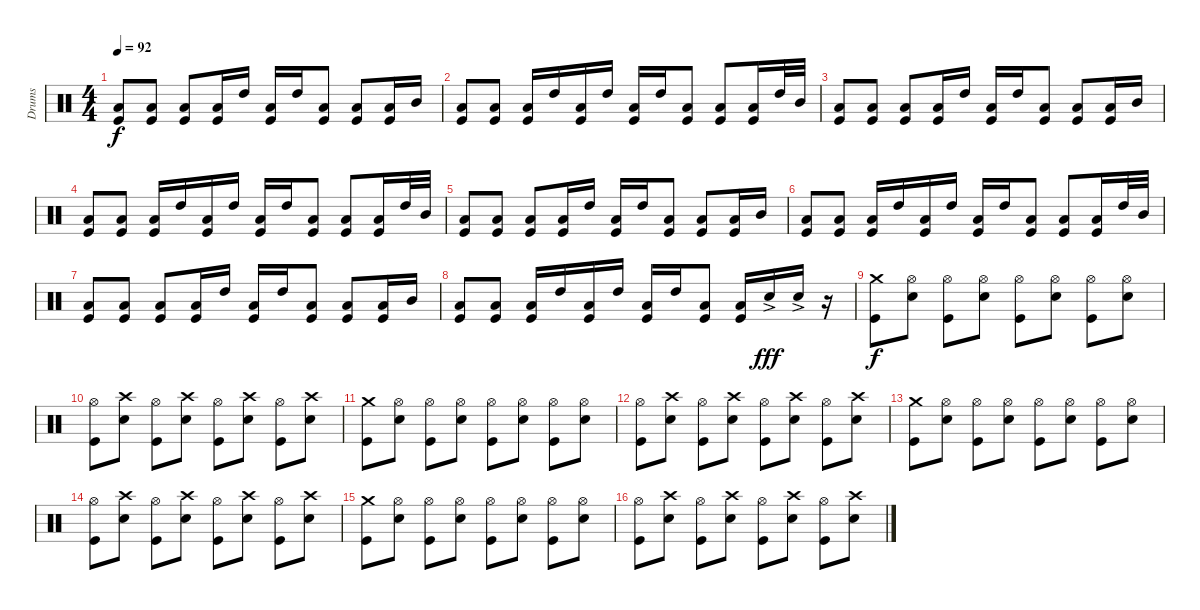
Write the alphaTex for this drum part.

\track ("Drums" "Drums") {instrument percussion}
\staff {score}
\articulation defaults
\ts (4 4)
\tempo 92
\clef neutral
\ks c
("Low Tom (hit)" "Kick (hit)").8{dy f} ("Low Tom (hit)" "Kick (hit)").8 ("Low Tom (hit)" "Kick (hit)").8 ("Low Tom (hit)" "Kick (hit)").16 "High Tom (hit)".16 ("Low Tom (hit)" "Kick (hit)").16 "High Tom (hit)".16 ("Low Tom (hit)" "Kick (hit)").8 ("Low Tom (hit)" "Kick (hit)").8 ("Low Tom (hit)" "Kick (hit)").16 "Mid Tom (hit)".16 |
("Low Tom (hit)" "Kick (hit)").8 ("Low Tom (hit)" "Kick (hit)").8 ("Low Tom (hit)" "Kick (hit)").16 "High Tom (hit)".16 ("Low Tom (hit)" "Kick (hit)").16 "High Tom (hit)".16 ("Low Tom (hit)" "Kick (hit)").16 "High Tom (hit)".16 ("Low Tom (hit)" "Kick (hit)").8 ("Low Tom (hit)" "Kick (hit)").8 ("Low Tom (hit)" "Kick (hit)").16 "High Tom (hit)".32 "Mid Tom (hit)".32 |
("Low Tom (hit)" "Kick (hit)").8 ("Low Tom (hit)" "Kick (hit)").8 ("Low Tom (hit)" "Kick (hit)").8 ("Low Tom (hit)" "Kick (hit)").16 "High Tom (hit)".16 ("Low Tom (hit)" "Kick (hit)").16 "High Tom (hit)".16 ("Low Tom (hit)" "Kick (hit)").8 ("Low Tom (hit)" "Kick (hit)").8 ("Low Tom (hit)" "Kick (hit)").16 "Mid Tom (hit)".16 |
("Low Tom (hit)" "Kick (hit)").8 ("Low Tom (hit)" "Kick (hit)").8 ("Low Tom (hit)" "Kick (hit)").16 "High Tom (hit)".16 ("Low Tom (hit)" "Kick (hit)").16 "High Tom (hit)".16 ("Low Tom (hit)" "Kick (hit)").16 "High Tom (hit)".16 ("Low Tom (hit)" "Kick (hit)").8 ("Low Tom (hit)" "Kick (hit)").8 ("Low Tom (hit)" "Kick (hit)").16 "High Tom (hit)".32 "Mid Tom (hit)".32 |
("Low Tom (hit)" "Kick (hit)").8 ("Low Tom (hit)" "Kick (hit)").8 ("Low Tom (hit)" "Kick (hit)").8 ("Low Tom (hit)" "Kick (hit)").16 "High Tom (hit)".16 ("Low Tom (hit)" "Kick (hit)").16 "High Tom (hit)".16 ("Low Tom (hit)" "Kick (hit)").8 ("Low Tom (hit)" "Kick (hit)").8 ("Low Tom (hit)" "Kick (hit)").16 "Mid Tom (hit)".16 |
("Low Tom (hit)" "Kick (hit)").8 ("Low Tom (hit)" "Kick (hit)").8 ("Low Tom (hit)" "Kick (hit)").16 "High Tom (hit)".16 ("Low Tom (hit)" "Kick (hit)").16 "High Tom (hit)".16 ("Low Tom (hit)" "Kick (hit)").16 "High Tom (hit)".16 ("Low Tom (hit)" "Kick (hit)").8 ("Low Tom (hit)" "Kick (hit)").8 ("Low Tom (hit)" "Kick (hit)").16 "High Tom (hit)".32 "Mid Tom (hit)".32 |
("Low Tom (hit)" "Kick (hit)").8 ("Low Tom (hit)" "Kick (hit)").8 ("Low Tom (hit)" "Kick (hit)").8 ("Low Tom (hit)" "Kick (hit)").16 "High Tom (hit)".16 ("Low Tom (hit)" "Kick (hit)").16 "High Tom (hit)".16 ("Low Tom (hit)" "Kick (hit)").8 ("Low Tom (hit)" "Kick (hit)").8 ("Low Tom (hit)" "Kick (hit)").16 "Mid Tom (hit)".16 |
("Low Tom (hit)" "Kick (hit)").8 ("Low Tom (hit)" "Kick (hit)").8 ("Low Tom (hit)" "Kick (hit)").16 "High Tom (hit)".16 ("Low Tom (hit)" "Kick (hit)").16 "High Tom (hit)".16 ("Low Tom (hit)" "Kick (hit)").16 "High Tom (hit)".16 ("Low Tom (hit)" "Kick (hit)").8 ("Low Tom (hit)" "Kick (hit)").16 "Electric Snare (hit)"{ac}.16{dy fff} "Electric Snare (hit)"{ac}.16 r.16 |
("Crash medium (hit)" "Kick (hit)").8{dy f} ("Hi-Hat (open)" "Electric Snare (hit)").8 ("Hi-Hat (open)" "Kick (hit)").8 ("Hi-Hat (open)" "Electric Snare (hit)").8 ("Hi-Hat (open)" "Kick (hit)").8 ("Hi-Hat (open)" "Electric Snare (hit)").8 ("Hi-Hat (open)" "Kick (hit)").8 ("Hi-Hat (open)" "Electric Snare (hit)").8 |
("Hi-Hat (open)" "Kick (hit)").8 ("Crash high (hit)" "Electric Snare (hit)").8 ("Hi-Hat (open)" "Kick (hit)").8 ("Crash high (hit)" "Electric Snare (hit)").8 ("Hi-Hat (open)" "Kick (hit)").8 ("Crash high (hit)" "Electric Snare (hit)").8 ("Hi-Hat (open)" "Kick (hit)").8 ("Crash high (hit)" "Electric Snare (hit)").8 |
("Crash medium (hit)" "Kick (hit)").8 ("Hi-Hat (open)" "Electric Snare (hit)").8 ("Hi-Hat (open)" "Kick (hit)").8 ("Hi-Hat (open)" "Electric Snare (hit)").8 ("Hi-Hat (open)" "Kick (hit)").8 ("Hi-Hat (open)" "Electric Snare (hit)").8 ("Hi-Hat (open)" "Kick (hit)").8 ("Hi-Hat (open)" "Electric Snare (hit)").8 |
("Hi-Hat (open)" "Kick (hit)").8 ("Crash high (hit)" "Electric Snare (hit)").8 ("Hi-Hat (open)" "Kick (hit)").8 ("Crash high (hit)" "Electric Snare (hit)").8 ("Hi-Hat (open)" "Kick (hit)").8 ("Crash high (hit)" "Electric Snare (hit)").8 ("Hi-Hat (open)" "Kick (hit)").8 ("Crash high (hit)" "Electric Snare (hit)").8 |
("Crash medium (hit)" "Kick (hit)").8 ("Hi-Hat (open)" "Electric Snare (hit)").8 ("Hi-Hat (open)" "Kick (hit)").8 ("Hi-Hat (open)" "Electric Snare (hit)").8 ("Hi-Hat (open)" "Kick (hit)").8 ("Hi-Hat (open)" "Electric Snare (hit)").8 ("Hi-Hat (open)" "Kick (hit)").8 ("Hi-Hat (open)" "Electric Snare (hit)").8 |
("Hi-Hat (open)" "Kick (hit)").8 ("Crash high (hit)" "Electric Snare (hit)").8 ("Hi-Hat (open)" "Kick (hit)").8 ("Crash high (hit)" "Electric Snare (hit)").8 ("Hi-Hat (open)" "Kick (hit)").8 ("Crash high (hit)" "Electric Snare (hit)").8 ("Hi-Hat (open)" "Kick (hit)").8 ("Crash high (hit)" "Electric Snare (hit)").8 |
("Crash medium (hit)" "Kick (hit)").8 ("Hi-Hat (open)" "Electric Snare (hit)").8 ("Hi-Hat (open)" "Kick (hit)").8 ("Hi-Hat (open)" "Electric Snare (hit)").8 ("Hi-Hat (open)" "Kick (hit)").8 ("Hi-Hat (open)" "Electric Snare (hit)").8 ("Hi-Hat (open)" "Kick (hit)").8 ("Hi-Hat (open)" "Electric Snare (hit)").8 |
("Hi-Hat (open)" "Kick (hit)").8 ("Crash high (hit)" "Electric Snare (hit)").8 ("Hi-Hat (open)" "Kick (hit)").8 ("Crash high (hit)" "Electric Snare (hit)").8 ("Hi-Hat (open)" "Kick (hit)").8 ("Crash high (hit)" "Electric Snare (hit)").8 ("Hi-Hat (open)" "Kick (hit)").8 ("Crash high (hit)" "Electric Snare (hit)").8
